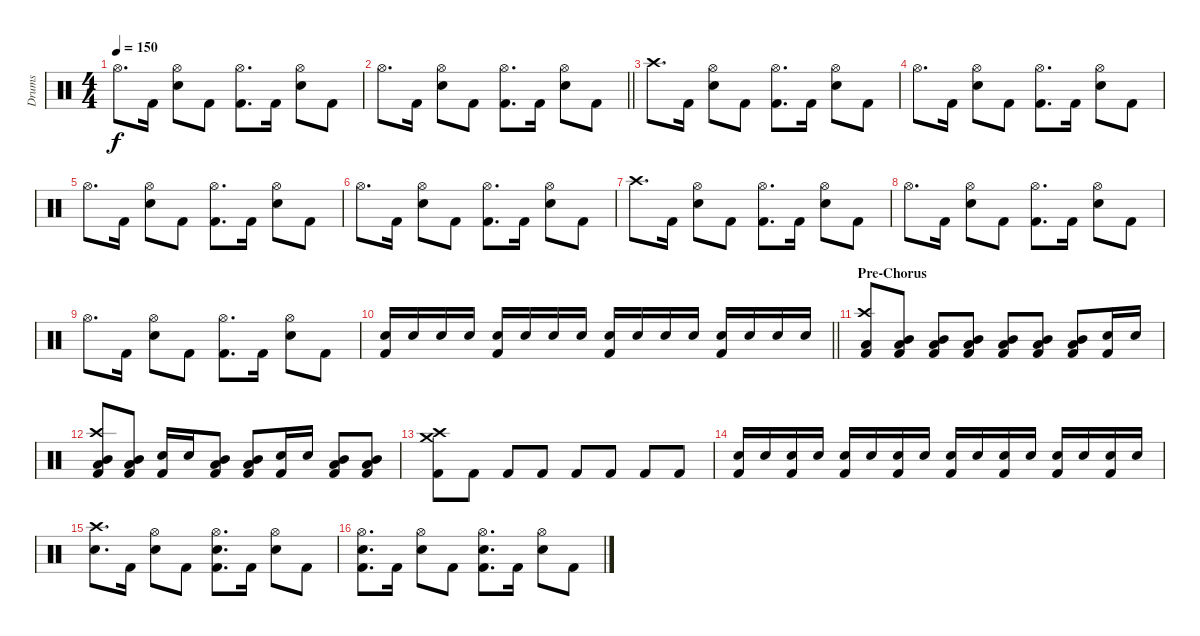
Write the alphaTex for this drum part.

\track ("Drums" "Drums") {instrument percussion}
\staff {score}
\articulation defaults
\ts (4 4)
\tempo 150
\clef neutral
\ks c "Hi-Hat (open)".8{d dy f} "Kick (hit) 2".16
("Snare (hit) 2" "Hi-Hat (open)").8 "Kick (hit) 2".8 ("Kick (hit) 2" "Hi-Hat (open)").8{d} "Kick (hit) 2".16 ("Snare (hit) 2" "Hi-Hat (open)").8 "Kick (hit) 2".8 |
\barLineRight lightlight "Hi-Hat (open)".8{d} "Kick (hit) 2".16
("Snare (hit) 2" "Hi-Hat (open)").8 "Kick (hit) 2".8 ("Kick (hit) 2" "Hi-Hat (open)").8{d} "Kick (hit) 2".16 ("Snare (hit) 2" "Hi-Hat (open)").8 "Kick (hit) 2".8 |
"Crash high (hit)".8{d} "Kick (hit) 2".16 ("Snare (hit) 2" "Hi-Hat (open)").8 "Kick (hit) 2".8 ("Kick (hit) 2" "Hi-Hat (open)").8{d} "Kick (hit) 2".16 ("Snare (hit) 2" "Hi-Hat (open)").8 "Kick (hit) 2".8 |
"Hi-Hat (open)".8{d} "Kick (hit) 2".16 ("Snare (hit) 2" "Hi-Hat (open)").8 "Kick (hit) 2".8 ("Kick (hit) 2" "Hi-Hat (open)").8{d} "Kick (hit) 2".16 ("Snare (hit) 2" "Hi-Hat (open)").8 "Kick (hit) 2".8 |
"Hi-Hat (open)".8{d} "Kick (hit) 2".16 ("Snare (hit) 2" "Hi-Hat (open)").8 "Kick (hit) 2".8 ("Kick (hit) 2" "Hi-Hat (open)").8{d} "Kick (hit) 2".16 ("Snare (hit) 2" "Hi-Hat (open)").8 "Kick (hit) 2".8 |
"Hi-Hat (open)".8{d} "Kick (hit) 2".16 ("Snare (hit) 2" "Hi-Hat (open)").8 "Kick (hit) 2".8 ("Kick (hit) 2" "Hi-Hat (open)").8{d} "Kick (hit) 2".16 ("Snare (hit) 2" "Hi-Hat (open)").8 "Kick (hit) 2".8 |
"Crash high (hit)".8{d} "Kick (hit) 2".16 ("Snare (hit) 2" "Hi-Hat (open)").8 "Kick (hit) 2".8 ("Kick (hit) 2" "Hi-Hat (open)").8{d} "Kick (hit) 2".16 ("Snare (hit) 2" "Hi-Hat (open)").8 "Kick (hit) 2".8 |
"Hi-Hat (open)".8{d} "Kick (hit) 2".16 ("Snare (hit) 2" "Hi-Hat (open)").8 "Kick (hit) 2".8 ("Kick (hit) 2" "Hi-Hat (open)").8{d} "Kick (hit) 2".16 ("Snare (hit) 2" "Hi-Hat (open)").8 "Kick (hit) 2".8 |
"Hi-Hat (open)".8{d} "Kick (hit) 2".16 ("Snare (hit) 2" "Hi-Hat (open)").8 "Kick (hit) 2".8 ("Kick (hit) 2" "Hi-Hat (open)").8{d} "Kick (hit) 2".16 ("Snare (hit) 2" "Hi-Hat (open)").8 "Kick (hit) 2".8 |
\barLineRight lightlight
("Kick (hit) 2" "Snare (hit) 2").16 "Snare (hit) 2".16 "Snare (hit) 2".16 "Snare (hit) 2".16 ("Kick (hit) 2" "Snare (hit) 2").16 "Snare (hit) 2".16 "Snare (hit) 2".16 "Snare (hit) 2".16 ("Kick (hit) 2" "Snare (hit) 2").16 "Snare (hit) 2".16 "Snare (hit) 2".16 "Snare (hit) 2".16 ("Kick (hit) 2" "Snare (hit) 2").16 "Snare (hit) 2".16 "Snare (hit) 2".16 "Snare (hit) 2".16 |
\section ("" "Pre-Chorus")
("Kick (hit) 2" "Low Tom (hit)" "Crash high (hit)").8 ("Kick (hit) 2" "Low Tom (hit)" "Mid Tom (hit)").8 ("Kick (hit) 2" "Low Tom (hit)" "Mid Tom (hit)").8 ("Kick (hit) 2" "Low Tom (hit)" "Mid Tom (hit)").8 ("Kick (hit) 2" "Low Tom (hit)" "Mid Tom (hit)").8 ("Kick (hit) 2" "Low Tom (hit)" "Mid Tom (hit)").8 ("Kick (hit) 2" "Low Tom (hit)" "Mid Tom (hit)").8 ("Kick (hit) 2" "Snare (hit) 2").16 "Snare (hit) 2".16 |
("Kick (hit) 2" "Low Tom (hit)" "Mid Tom (hit)" "Crash high (hit)").8 ("Kick (hit) 2" "Low Tom (hit)" "Mid Tom (hit)").8 ("Kick (hit) 2" "Snare (hit) 2").16 "Snare (hit) 2".16 ("Kick (hit) 2" "Low Tom (hit)" "Mid Tom (hit)").8 ("Kick (hit) 2" "Low Tom (hit)" "Mid Tom (hit)").8 ("Kick (hit) 2" "Snare (hit) 2").16 "Snare (hit) 2".16 ("Kick (hit) 2" "Low Tom (hit)" "Mid Tom (hit)").8 ("Kick (hit) 2" "Low Tom (hit)" "Mid Tom (hit)").8 |
("Kick (hit) 2" "Crash high (hit)" "Crash medium (hit)").8 "Kick (hit) 2".8 "Kick (hit) 2".8 "Kick (hit) 2".8 "Kick (hit) 2".8 "Kick (hit) 2".8 "Kick (hit) 2".8 "Kick (hit) 2".8 |
("Kick (hit) 2" "Snare (hit) 2").16 "Snare (hit) 2".16 ("Kick (hit) 2" "Snare (hit) 2").16 "Snare (hit) 2".16 ("Kick (hit) 2" "Snare (hit) 2").16 "Snare (hit) 2".16 ("Kick (hit) 2" "Snare (hit) 2").16 "Snare (hit) 2".16 ("Kick (hit) 2" "Snare (hit) 2").16 "Snare (hit) 2".16 ("Kick (hit) 2" "Snare (hit) 2").16 "Snare (hit) 2".16 ("Kick (hit) 2" "Snare (hit) 2").16 "Snare (hit) 2".16 ("Kick (hit) 2" "Snare (hit) 2").16 "Snare (hit) 2".16 |
("Snare (hit) 2" "Crash high (hit)").8{d} "Kick (hit) 2".16 ("Snare (hit) 2" "Hi-Hat (open)").8 "Kick (hit) 2".8 ("Kick (hit) 2" "Snare (hit) 2" "Hi-Hat (open)").8{d} "Kick (hit) 2".16 ("Snare (hit) 2" "Hi-Hat (open)").8 "Kick (hit) 2".8 |
("Kick (hit) 2" "Snare (hit) 2" "Hi-Hat (open)").8{d} "Kick (hit) 2".16 ("Snare (hit) 2" "Hi-Hat (open)").8 "Kick (hit) 2".8 ("Kick (hit) 2" "Snare (hit) 2" "Hi-Hat (open)").8{d} "Kick (hit) 2".16 ("Snare (hit) 2" "Hi-Hat (open)").8 "Kick (hit) 2".8
